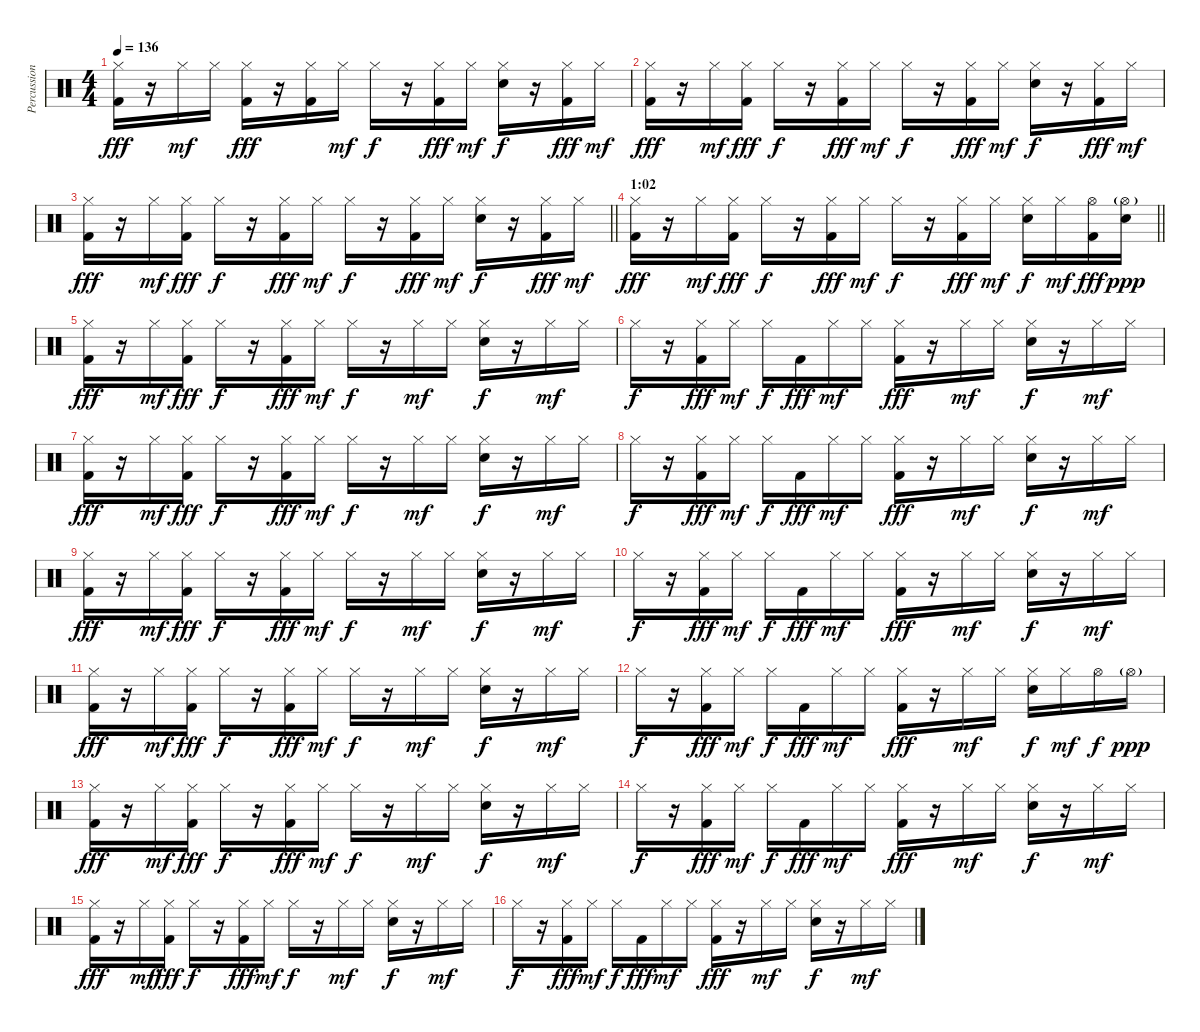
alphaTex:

\track ("Percussion" "Percussion") {instrument percussion}
\staff {score}
\articulation defaults
\ts (4 4)
\tempo 136
\clef neutral
\ks c
("Hi-Hat (closed)" "Kick (hit) 2").16{dy fff} r.16 "Hi-Hat (closed)".16{dy mf} "Hi-Hat (closed)".16 ("Hi-Hat (closed)" "Kick (hit) 2").16{dy fff} r.16 ("Hi-Hat (closed)" "Kick (hit) 2").16 "Hi-Hat (closed)".16{dy mf} "Hi-Hat (closed)".16{dy f} r.16 ("Hi-Hat (closed)" "Kick (hit) 2").16{dy fff} "Hi-Hat (closed)".16{dy mf} ("Hi-Hat (closed)" "Electric Snare (hit)").16{dy f} r.16 ("Hi-Hat (closed)" "Kick (hit) 2").16{dy fff} "Hi-Hat (closed)".16{dy mf} |
("Hi-Hat (closed)" "Kick (hit) 2").16{dy fff} r.16 "Hi-Hat (closed)".16{dy mf} ("Hi-Hat (closed)" "Kick (hit) 2").16{dy fff} "Hi-Hat (closed)".16{dy f} r.16 ("Hi-Hat (closed)" "Kick (hit) 2").16{dy fff} "Hi-Hat (closed)".16{dy mf} "Hi-Hat (closed)".16{dy f} r.16 ("Hi-Hat (closed)" "Kick (hit) 2").16{dy fff} "Hi-Hat (closed)".16{dy mf} ("Hi-Hat (closed)" "Electric Snare (hit)").16{dy f} r.16 ("Hi-Hat (closed)" "Kick (hit) 2").16{dy fff} "Hi-Hat (closed)".16{dy mf} |
\barLineRight lightlight
("Hi-Hat (closed)" "Kick (hit) 2").16{dy fff} r.16 "Hi-Hat (closed)".16{dy mf} ("Hi-Hat (closed)" "Kick (hit) 2").16{dy fff} "Hi-Hat (closed)".16{dy f} r.16 ("Hi-Hat (closed)" "Kick (hit) 2").16{dy fff} "Hi-Hat (closed)".16{dy mf} "Hi-Hat (closed)".16{dy f} r.16 ("Hi-Hat (closed)" "Kick (hit) 2").16{dy fff} "Hi-Hat (closed)".16{dy mf} ("Hi-Hat (closed)" "Electric Snare (hit)").16{dy f} r.16 ("Hi-Hat (closed)" "Kick (hit) 2").16{dy fff} "Hi-Hat (closed)".16{dy mf} |
\section ("" "1:02")
\barLineRight lightlight
("Hi-Hat (closed)" "Kick (hit) 2").16{dy fff} r.16 "Hi-Hat (closed)".16{dy mf} ("Hi-Hat (closed)" "Kick (hit) 2").16{dy fff} "Hi-Hat (closed)".16{dy f} r.16 ("Hi-Hat (closed)" "Kick (hit) 2").16{dy fff} "Hi-Hat (closed)".16{dy mf} "Hi-Hat (closed)".16{dy f} r.16 ("Hi-Hat (closed)" "Kick (hit) 2").16{dy fff} "Hi-Hat (closed)".16{dy mf} ("Hi-Hat (closed)" "Electric Snare (hit)").16{dy f} "Hi-Hat (closed)".16{dy mf} ("Hi-Hat (open)" "Kick (hit) 2").16{dy fff} ("Hi-Hat (open)"{g} "Electric Snare (hit)").16{dy ppp} |
("Hi-Hat (closed)" "Kick (hit) 2").16{dy fff} r.16 "Hi-Hat (closed)".16{dy mf} ("Hi-Hat (closed)" "Kick (hit) 2").16{dy fff} "Hi-Hat (closed)".16{dy f} r.16 ("Hi-Hat (closed)" "Kick (hit) 2").16{dy fff} "Hi-Hat (closed)".16{dy mf} "Hi-Hat (closed)".16{dy f} r.16 "Hi-Hat (closed)".16{dy mf} "Hi-Hat (closed)".16 ("Hi-Hat (closed)" "Electric Snare (hit)").16{dy f} r.16 "Hi-Hat (closed)".16{dy mf} "Hi-Hat (closed)".16 |
"Hi-Hat (closed)".16{dy f} r.16 ("Hi-Hat (closed)" "Kick (hit) 2").16{dy fff} "Hi-Hat (closed)".16{dy mf} "Hi-Hat (closed)".16{dy f} "Kick (hit) 2".16{dy fff} "Hi-Hat (closed)".16{dy mf} "Hi-Hat (closed)".16 ("Hi-Hat (closed)" "Kick (hit) 2").16{dy fff} r.16 "Hi-Hat (closed)".16{dy mf} "Hi-Hat (closed)".16 ("Hi-Hat (closed)" "Electric Snare (hit)").16{dy f} r.16 "Hi-Hat (closed)".16{dy mf} "Hi-Hat (closed)".16 |
("Hi-Hat (closed)" "Kick (hit) 2").16{dy fff} r.16 "Hi-Hat (closed)".16{dy mf} ("Hi-Hat (closed)" "Kick (hit) 2").16{dy fff} "Hi-Hat (closed)".16{dy f} r.16 ("Hi-Hat (closed)" "Kick (hit) 2").16{dy fff} "Hi-Hat (closed)".16{dy mf} "Hi-Hat (closed)".16{dy f} r.16 "Hi-Hat (closed)".16{dy mf} "Hi-Hat (closed)".16 ("Hi-Hat (closed)" "Electric Snare (hit)").16{dy f} r.16 "Hi-Hat (closed)".16{dy mf} "Hi-Hat (closed)".16 |
"Hi-Hat (closed)".16{dy f} r.16 ("Hi-Hat (closed)" "Kick (hit) 2").16{dy fff} "Hi-Hat (closed)".16{dy mf} "Hi-Hat (closed)".16{dy f} "Kick (hit) 2".16{dy fff} "Hi-Hat (closed)".16{dy mf} "Hi-Hat (closed)".16 ("Hi-Hat (closed)" "Kick (hit) 2").16{dy fff} r.16 "Hi-Hat (closed)".16{dy mf} "Hi-Hat (closed)".16 ("Hi-Hat (closed)" "Electric Snare (hit)").16{dy f} r.16 "Hi-Hat (closed)".16{dy mf} "Hi-Hat (closed)".16 |
("Hi-Hat (closed)" "Kick (hit) 2").16{dy fff} r.16 "Hi-Hat (closed)".16{dy mf} ("Hi-Hat (closed)" "Kick (hit) 2").16{dy fff} "Hi-Hat (closed)".16{dy f} r.16 ("Hi-Hat (closed)" "Kick (hit) 2").16{dy fff} "Hi-Hat (closed)".16{dy mf} "Hi-Hat (closed)".16{dy f} r.16 "Hi-Hat (closed)".16{dy mf} "Hi-Hat (closed)".16 ("Hi-Hat (closed)" "Electric Snare (hit)").16{dy f} r.16 "Hi-Hat (closed)".16{dy mf} "Hi-Hat (closed)".16 |
"Hi-Hat (closed)".16{dy f} r.16 ("Hi-Hat (closed)" "Kick (hit) 2").16{dy fff} "Hi-Hat (closed)".16{dy mf} "Hi-Hat (closed)".16{dy f} "Kick (hit) 2".16{dy fff} "Hi-Hat (closed)".16{dy mf} "Hi-Hat (closed)".16 ("Hi-Hat (closed)" "Kick (hit) 2").16{dy fff} r.16 "Hi-Hat (closed)".16{dy mf} "Hi-Hat (closed)".16 ("Hi-Hat (closed)" "Electric Snare (hit)").16{dy f} r.16 "Hi-Hat (closed)".16{dy mf} "Hi-Hat (closed)".16 |
("Hi-Hat (closed)" "Kick (hit) 2").16{dy fff} r.16 "Hi-Hat (closed)".16{dy mf} ("Hi-Hat (closed)" "Kick (hit) 2").16{dy fff} "Hi-Hat (closed)".16{dy f} r.16 ("Hi-Hat (closed)" "Kick (hit) 2").16{dy fff} "Hi-Hat (closed)".16{dy mf} "Hi-Hat (closed)".16{dy f} r.16 "Hi-Hat (closed)".16{dy mf} "Hi-Hat (closed)".16 ("Hi-Hat (closed)" "Electric Snare (hit)").16{dy f} r.16 "Hi-Hat (closed)".16{dy mf} "Hi-Hat (closed)".16 |
"Hi-Hat (closed)".16{dy f} r.16 ("Hi-Hat (closed)" "Kick (hit) 2").16{dy fff} "Hi-Hat (closed)".16{dy mf} "Hi-Hat (closed)".16{dy f} "Kick (hit) 2".16{dy fff} "Hi-Hat (closed)".16{dy mf} "Hi-Hat (closed)".16 ("Hi-Hat (closed)" "Kick (hit) 2").16{dy fff} r.16 "Hi-Hat (closed)".16{dy mf} "Hi-Hat (closed)".16 ("Hi-Hat (closed)" "Electric Snare (hit)").16{dy f} "Hi-Hat (closed)".16{dy mf} "Hi-Hat (open)".16{dy f} "Hi-Hat (open)"{g}.16{dy ppp} |
("Hi-Hat (closed)" "Kick (hit) 2").16{dy fff} r.16 "Hi-Hat (closed)".16{dy mf} ("Hi-Hat (closed)" "Kick (hit) 2").16{dy fff} "Hi-Hat (closed)".16{dy f} r.16 ("Hi-Hat (closed)" "Kick (hit) 2").16{dy fff} "Hi-Hat (closed)".16{dy mf} "Hi-Hat (closed)".16{dy f} r.16 "Hi-Hat (closed)".16{dy mf} "Hi-Hat (closed)".16 ("Hi-Hat (closed)" "Electric Snare (hit)").16{dy f} r.16 "Hi-Hat (closed)".16{dy mf} "Hi-Hat (closed)".16 |
"Hi-Hat (closed)".16{dy f} r.16 ("Hi-Hat (closed)" "Kick (hit) 2").16{dy fff} "Hi-Hat (closed)".16{dy mf} "Hi-Hat (closed)".16{dy f} "Kick (hit) 2".16{dy fff} "Hi-Hat (closed)".16{dy mf} "Hi-Hat (closed)".16 ("Hi-Hat (closed)" "Kick (hit) 2").16{dy fff} r.16 "Hi-Hat (closed)".16{dy mf} "Hi-Hat (closed)".16 ("Hi-Hat (closed)" "Electric Snare (hit)").16{dy f} r.16 "Hi-Hat (closed)".16{dy mf} "Hi-Hat (closed)".16 |
("Hi-Hat (closed)" "Kick (hit) 2").16{dy fff} r.16 "Hi-Hat (closed)".16{dy mf} ("Hi-Hat (closed)" "Kick (hit) 2").16{dy fff} "Hi-Hat (closed)".16{dy f} r.16 ("Hi-Hat (closed)" "Kick (hit) 2").16{dy fff} "Hi-Hat (closed)".16{dy mf} "Hi-Hat (closed)".16{dy f} r.16 "Hi-Hat (closed)".16{dy mf} "Hi-Hat (closed)".16 ("Hi-Hat (closed)" "Electric Snare (hit)").16{dy f} r.16 "Hi-Hat (closed)".16{dy mf} "Hi-Hat (closed)".16 |
"Hi-Hat (closed)".16{dy f} r.16 ("Hi-Hat (closed)" "Kick (hit) 2").16{dy fff} "Hi-Hat (closed)".16{dy mf} "Hi-Hat (closed)".16{dy f} "Kick (hit) 2".16{dy fff} "Hi-Hat (closed)".16{dy mf} "Hi-Hat (closed)".16 ("Hi-Hat (closed)" "Kick (hit) 2").16{dy fff} r.16 "Hi-Hat (closed)".16{dy mf} "Hi-Hat (closed)".16 ("Hi-Hat (closed)" "Electric Snare (hit)").16{dy f} r.16 "Hi-Hat (closed)".16{dy mf} "Hi-Hat (closed)".16
